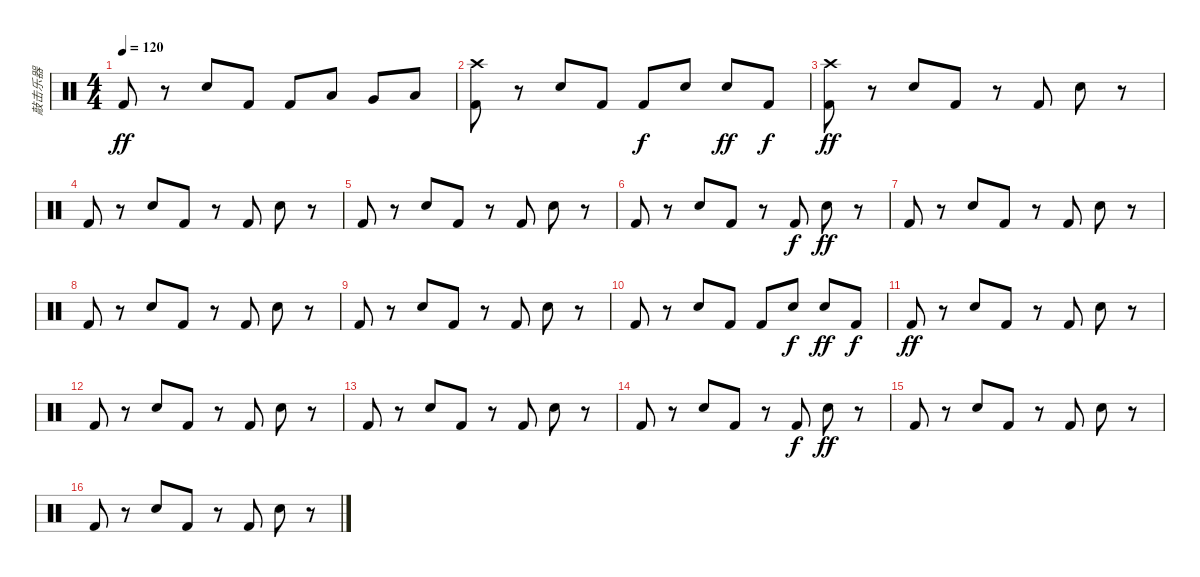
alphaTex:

\track ("敲击乐器" "敲击乐器") {instrument percussion}
\staff {score}
\articulation defaults
\ts (4 4)
\tempo 120
\clef neutral
\ks c "Kick (hit) 2".8{dy ff}
r.8 "Electric Snare (hit)".8 "Kick (hit) 2".8 "Kick (hit) 2".8 "Low Tom (hit)".8 "Very Low Tom (hit)".8 "Low Floor Tom (hit)".8 |
("Crash high (hit)" "Kick (hit) 2").8 r.8 "Electric Snare (hit)".8 "Kick (hit) 2".8 "Kick (hit) 2".8{dy f} "Electric Snare (hit)".8 "Electric Snare (hit)".8{dy ff} "Kick (hit) 2".8{dy f} |
("Crash high (hit)" "Kick (hit) 2").8{dy ff} r.8 "Electric Snare (hit)".8 "Kick (hit) 2".8 r.8 "Kick (hit) 2".8 "Electric Snare (hit)".8 r.8 |
"Kick (hit) 2".8 r.8 "Electric Snare (hit)".8 "Kick (hit) 2".8 r.8 "Kick (hit) 2".8 "Electric Snare (hit)".8 r.8 |
"Kick (hit) 2".8 r.8 "Electric Snare (hit)".8 "Kick (hit) 2".8 r.8 "Kick (hit) 2".8 "Electric Snare (hit)".8 r.8 |
"Kick (hit) 2".8 r.8 "Electric Snare (hit)".8 "Kick (hit) 2".8 r.8 "Kick (hit) 2".8{dy f} "Electric Snare (hit)".8{dy ff} r.8 |
"Kick (hit) 2".8 r.8 "Electric Snare (hit)".8 "Kick (hit) 2".8 r.8 "Kick (hit) 2".8 "Electric Snare (hit)".8 r.8 |
"Kick (hit) 2".8 r.8 "Electric Snare (hit)".8 "Kick (hit) 2".8 r.8 "Kick (hit) 2".8 "Electric Snare (hit)".8 r.8 |
"Kick (hit) 2".8 r.8 "Electric Snare (hit)".8 "Kick (hit) 2".8 r.8 "Kick (hit) 2".8 "Electric Snare (hit)".8 r.8 |
"Kick (hit) 2".8 r.8 "Electric Snare (hit)".8 "Kick (hit) 2".8 "Kick (hit) 2".8 "Electric Snare (hit)".8{dy f} "Electric Snare (hit)".8{dy ff} "Kick (hit) 2".8{dy f} |
"Kick (hit) 2".8{dy ff} r.8 "Electric Snare (hit)".8 "Kick (hit) 2".8 r.8 "Kick (hit) 2".8 "Electric Snare (hit)".8 r.8 |
"Kick (hit) 2".8 r.8 "Electric Snare (hit)".8 "Kick (hit) 2".8 r.8 "Kick (hit) 2".8 "Electric Snare (hit)".8 r.8 |
"Kick (hit) 2".8 r.8 "Electric Snare (hit)".8 "Kick (hit) 2".8 r.8 "Kick (hit) 2".8 "Electric Snare (hit)".8 r.8 |
"Kick (hit) 2".8 r.8 "Electric Snare (hit)".8 "Kick (hit) 2".8 r.8 "Kick (hit) 2".8{dy f} "Electric Snare (hit)".8{dy ff} r.8 |
"Kick (hit) 2".8 r.8 "Electric Snare (hit)".8 "Kick (hit) 2".8 r.8 "Kick (hit) 2".8 "Electric Snare (hit)".8 r.8 |
"Kick (hit) 2".8 r.8 "Electric Snare (hit)".8 "Kick (hit) 2".8 r.8 "Kick (hit) 2".8 "Electric Snare (hit)".8 r.8
